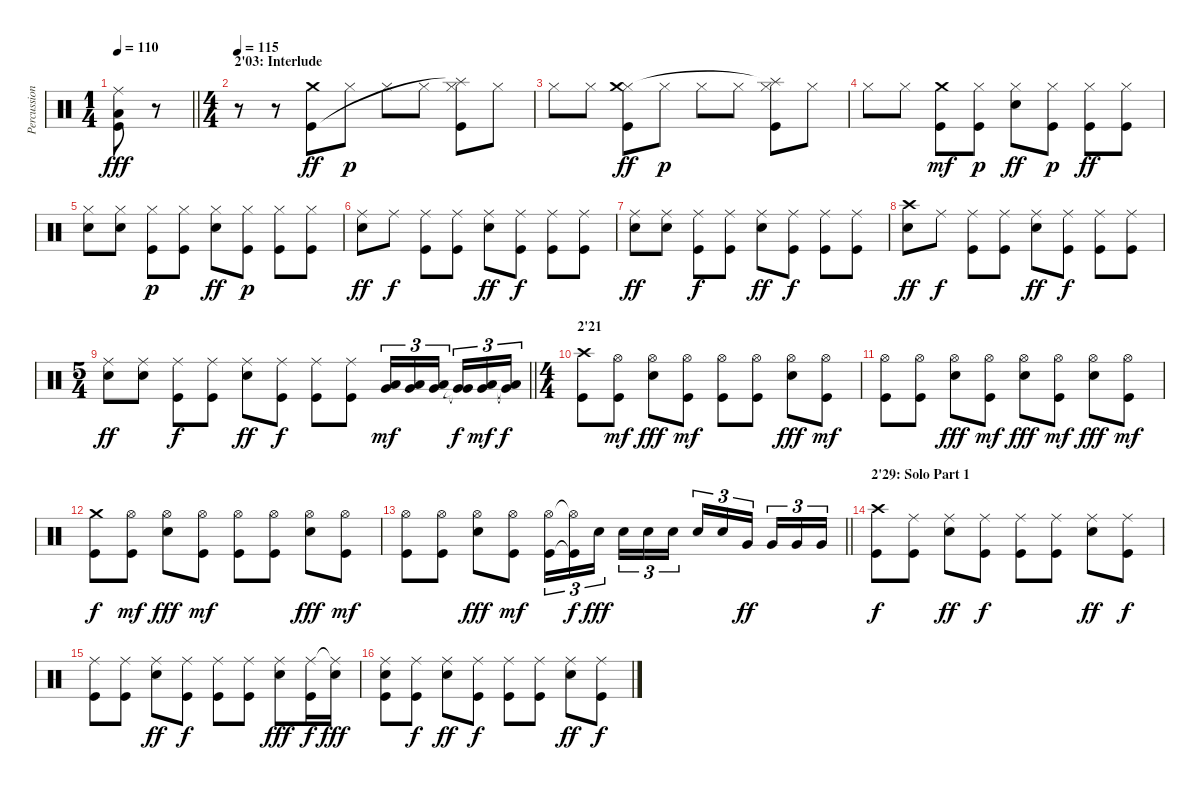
\track ("Percussion" "Percussion") {instrument percussion}
\staff {score}
\articulation defaults
\ts (1 4)
\tempo 110
\clef neutral
\barLineRight lightlight
\ks c
("Ride (middle)" "Low Floor Tom (hit)" "Kick (hit)").8{dy fff} r.8 |
\ts (4 4)
\section ("" "2'03: Interlude")
\tempo 115
r.8 r.8 ("Crash medium (hit)" "Kick (hit)").8{dy ff} "Hi-Hat (closed)".8{dy p} "Hi-Hat (closed)".8 "Hi-Hat (closed)".8 ("Hi-Hat (closed)" "Splash (hit)"{t} "Kick (hit)").8 "Hi-Hat (closed)".8 |
"Hi-Hat (closed)".8 "Hi-Hat (closed)".8 ("Hi-Hat (closed)" "Crash medium (hit)" "Kick (hit)").8{dy ff} "Hi-Hat (closed)".8{dy p} "Hi-Hat (closed)".8 "Hi-Hat (closed)".8 ("Hi-Hat (closed)" "Splash (hit)"{t} "Kick (hit)").8 "Hi-Hat (closed)".8 |
"Hi-Hat (closed)".8 "Hi-Hat (closed)".8 ("Crash medium (hit)" "Kick (hit)").8{dy mf} ("Hi-Hat (closed)" "Kick (hit)").8{dy p} ("Hi-Hat (closed)" "Electric Snare (hit)").8{dy ff} ("Hi-Hat (closed)" "Kick (hit)").8{dy p} ("Hi-Hat (closed)" "Kick (hit)").8{dy ff} ("Hi-Hat (closed)" "Kick (hit)").8 |
("Hi-Hat (closed)" "Electric Snare (hit)").8 ("Hi-Hat (closed)" "Electric Snare (hit)").8 ("Hi-Hat (closed)" "Kick (hit)").8{dy p} ("Hi-Hat (closed)" "Kick (hit)").8 ("Hi-Hat (closed)" "Electric Snare (hit)").8{dy ff} ("Hi-Hat (closed)" "Kick (hit)").8{dy p} ("Hi-Hat (closed)" "Kick (hit)").8 ("Hi-Hat (closed)" "Kick (hit)").8 |
("Ride (middle)" "Electric Snare (hit)").8{dy ff} "Ride (middle)".8{dy f} ("Ride (middle)" "Kick (hit)").8 ("Ride (middle)" "Kick (hit)").8 ("Ride (middle)" "Electric Snare (hit)").8{dy ff} ("Ride (middle)" "Kick (hit)").8{dy f} ("Ride (middle)" "Kick (hit)").8 ("Ride (middle)" "Kick (hit)").8 |
("Ride (middle)" "Electric Snare (hit)").8{dy ff} ("Ride (middle)" "Electric Snare (hit)").8 ("Ride (middle)" "Kick (hit)").8{dy f} ("Ride (middle)" "Kick (hit)").8 ("Ride (middle)" "Electric Snare (hit)").8{dy ff} ("Ride (middle)" "Kick (hit)").8{dy f} ("Ride (middle)" "Kick (hit)").8 ("Ride (middle)" "Kick (hit)").8 |
("Crash high (hit)" "Electric Snare (hit)").8{dy ff} "Ride (middle)".8{dy f} ("Ride (middle)" "Kick (hit)").8 ("Ride (middle)" "Kick (hit)").8 ("Ride (middle)" "Electric Snare (hit)").8{dy ff} ("Ride (middle)" "Kick (hit)").8{dy f} ("Ride (middle)" "Kick (hit)").8 ("Ride (middle)" "Kick (hit)").8 |
\ts (5 4)
\barLineRight lightlight
("Ride (middle)" "Electric Snare (hit)").8{dy ff} ("Ride (middle)" "Electric Snare (hit)").8 ("Ride (middle)" "Kick (hit)").8{dy f} ("Ride (middle)" "Kick (hit)").8 ("Ride (middle)" "Electric Snare (hit)").8{dy ff} ("Ride (middle)" "Kick (hit)").8{dy f} ("Ride (middle)" "Kick (hit)").8 ("Ride (middle)" "Kick (hit)").8 ("Low Tom (hit)" "Very Low Tom (hit)").16{tu (3 2) dy mf} ("Low Tom (hit)" "Very Low Tom (hit)").16{tu (3 2)} ("Low Tom (hit)" "Very Low Tom (hit)").16{tu (3 2) beam splitsecondary} ("Very Low Tom (hit)"{t} "Very Low Tom (hit)"{t}).16{tu (3 2) dy f} ("Low Tom (hit)" "Very Low Tom (hit)").16{tu (3 2) dy mf} ("Low Tom (hit)"{t} "Very Low Tom (hit)"{t}).16{tu (3 2) dy f} |
\ts (4 4)
\section ("" "2'21")
("Crash high (hit)" "Kick (hit)").8 ("Hi-Hat (open)" "Kick (hit)").8{dy mf} ("Hi-Hat (open)" "Electric Snare (hit)").8{dy fff} ("Hi-Hat (open)" "Kick (hit)").8{dy mf} ("Hi-Hat (open)" "Kick (hit)").8 ("Hi-Hat (open)" "Kick (hit)").8 ("Hi-Hat (open)" "Electric Snare (hit)").8{dy fff} ("Hi-Hat (open)" "Kick (hit)").8{dy mf} |
("Hi-Hat (open)" "Kick (hit)").8 ("Hi-Hat (open)" "Kick (hit)").8 ("Hi-Hat (open)" "Electric Snare (hit)").8{dy fff} ("Hi-Hat (open)" "Kick (hit)").8{dy mf} ("Hi-Hat (open)" "Electric Snare (hit)").8{dy fff} ("Hi-Hat (open)" "Kick (hit)").8{dy mf} ("Hi-Hat (open)" "Electric Snare (hit)").8{dy fff} ("Hi-Hat (open)" "Kick (hit)").8{dy mf} |
("Crash medium (hit)" "Kick (hit)").8{dy f} ("Hi-Hat (open)" "Kick (hit)").8{dy mf} ("Hi-Hat (open)" "Electric Snare (hit)").8{dy fff} ("Hi-Hat (open)" "Kick (hit)").8{dy mf} ("Hi-Hat (open)" "Kick (hit)").8 ("Hi-Hat (open)" "Kick (hit)").8 ("Hi-Hat (open)" "Electric Snare (hit)").8{dy fff} ("Hi-Hat (open)" "Kick (hit)").8{dy mf} |
\barLineRight lightlight
("Hi-Hat (open)" "Kick (hit)").8 ("Hi-Hat (open)" "Kick (hit)").8 ("Hi-Hat (open)" "Electric Snare (hit)").8{dy fff} ("Hi-Hat (open)" "Kick (hit)").8{dy mf} ("Hi-Hat (open)" "Kick (hit)").16{tu (3 2)} ("Hi-Hat (open)"{t} "Kick (hit)"{t}).16{tu (3 2) dy f} "Electric Snare (hit)".16{tu (3 2) dy fff beam splitsecondary} "Electric Snare (hit)".16{tu (3 2)} "Electric Snare (hit)".16{tu (3 2)} "Electric Snare (hit)".16{tu (3 2)} "Electric Snare (hit)".16{tu (3 2)} "Electric Snare (hit)".16{tu (3 2)} "Very Low Tom (hit)".16{tu (3 2) dy ff beam splitsecondary} "Very Low Tom (hit)".16{tu (3 2)} "Very Low Tom (hit)".16{tu (3 2)} "Very Low Tom (hit)".16{tu (3 2)} |
\section ("" "2'29: Solo Part 1")
("Crash high (hit)" "Kick (hit)").8{dy f} ("Ride (middle)" "Kick (hit)").8 ("Ride (middle)" "Electric Snare (hit)").8{dy ff} ("Ride (middle)" "Kick (hit)").8{dy f} ("Ride (middle)" "Kick (hit)").8 ("Ride (middle)" "Kick (hit)").8 ("Ride (middle)" "Electric Snare (hit)").8{dy ff} ("Ride (middle)" "Kick (hit)").8{dy f} |
("Ride (middle)" "Kick (hit)").8 ("Ride (middle)" "Kick (hit)").8 ("Ride (middle)" "Electric Snare (hit)").8{dy ff} ("Ride (middle)" "Kick (hit)").8{dy f} ("Ride (middle)" "Kick (hit)").8 ("Ride (middle)" "Kick (hit)").8 ("Ride (middle)" "Electric Snare (hit)").8{dy fff} ("Ride (middle)" "Kick (hit)").16{dy f} ("Ride (middle)"{t} "Electric Snare (hit)").16{dy fff} |
("Ride (middle)" "Electric Snare (hit)" "Kick (hit)").8 ("Ride (middle)" "Kick (hit)").8{dy f} ("Ride (middle)" "Electric Snare (hit)").8{dy ff} ("Ride (middle)" "Kick (hit)").8{dy f} ("Ride (middle)" "Kick (hit)").8 ("Ride (middle)" "Kick (hit)").8 ("Ride (middle)" "Electric Snare (hit)").8{dy ff} ("Ride (middle)" "Kick (hit)").8{dy f}
